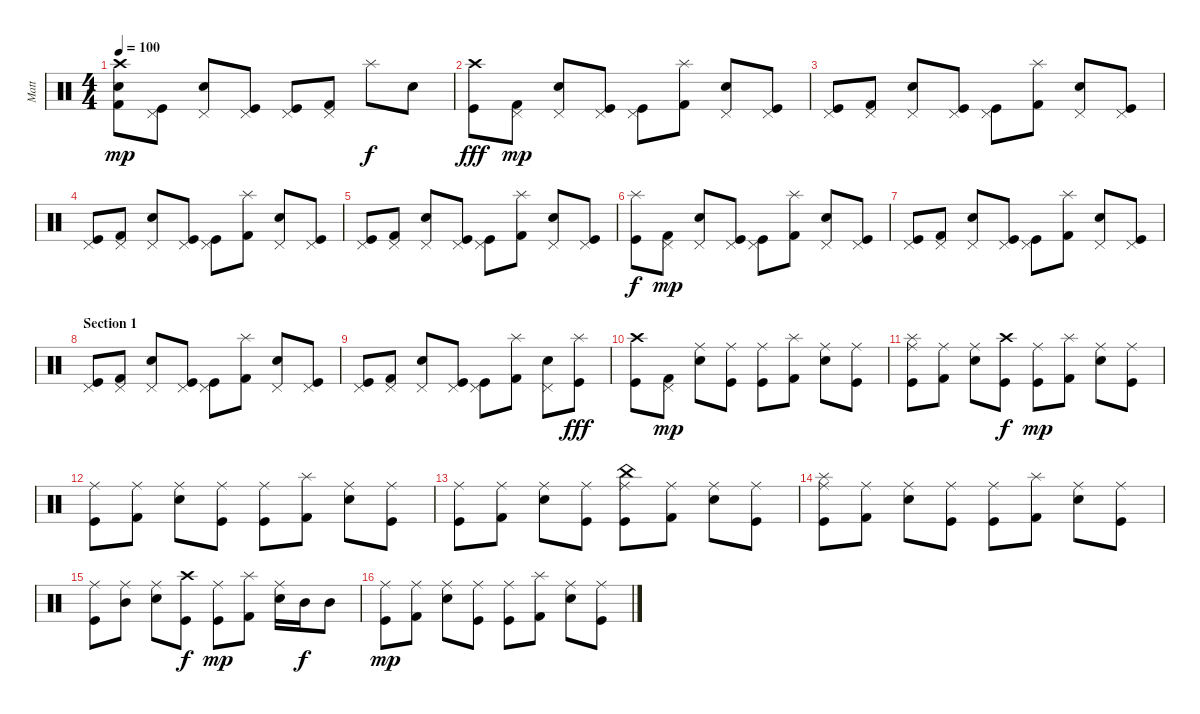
\track ("Matt" "Matt") {instrument percussion}
\staff {score}
\articulation defaults
\ts (4 4)
\tempo 100
\clef neutral
\ks c
("Electric Snare (hit)" "Kick (hit) 2" "Crash high (hit)").8{dy mp} ("Kick (hit)" "Pedal Hi-Hat (hit)").8 ("Electric Snare (hit)" "Pedal Hi-Hat (hit)").8 ("Kick (hit)" "Pedal Hi-Hat (hit)").8 ("Kick (hit)" "Pedal Hi-Hat (hit)").8 ("Kick (hit) 2"{tr (36 16)} "Pedal Hi-Hat (hit)").8 "Splash (hit)".8{dy f} "Electric Snare (hit)"{tr (40 16)}.8 |
("Kick (hit)" "Crash high (hit)").8{dy fff} ("Kick (hit) 2" "Pedal Hi-Hat (hit)").8{dy mp} ("Electric Snare (hit)" "Pedal Hi-Hat (hit)").8 ("Kick (hit)" "Pedal Hi-Hat (hit)").8 ("Kick (hit)" "Pedal Hi-Hat (hit)").8 ("Kick (hit) 2" "Splash (hit)").8 ("Electric Snare (hit)" "Pedal Hi-Hat (hit)").8 ("Kick (hit)" "Pedal Hi-Hat (hit)").8 |
("Kick (hit)" "Pedal Hi-Hat (hit)").8 ("Kick (hit) 2" "Pedal Hi-Hat (hit)").8 ("Electric Snare (hit)" "Pedal Hi-Hat (hit)").8 ("Kick (hit)" "Pedal Hi-Hat (hit)").8 ("Kick (hit)" "Pedal Hi-Hat (hit)").8 ("Kick (hit) 2" "Splash (hit)").8 ("Electric Snare (hit)" "Pedal Hi-Hat (hit)").8 ("Kick (hit)" "Pedal Hi-Hat (hit)").8 |
("Kick (hit)" "Pedal Hi-Hat (hit)").8 ("Kick (hit) 2" "Pedal Hi-Hat (hit)").8 ("Electric Snare (hit)" "Pedal Hi-Hat (hit)").8 ("Kick (hit)" "Pedal Hi-Hat (hit)").8 ("Kick (hit)" "Pedal Hi-Hat (hit)").8 ("Kick (hit) 2" "Splash (hit)").8 ("Electric Snare (hit)" "Pedal Hi-Hat (hit)").8 ("Kick (hit)" "Pedal Hi-Hat (hit)").8 |
("Kick (hit)" "Pedal Hi-Hat (hit)").8 ("Kick (hit) 2" "Pedal Hi-Hat (hit)").8 ("Electric Snare (hit)" "Pedal Hi-Hat (hit)").8 ("Kick (hit)" "Pedal Hi-Hat (hit)").8 ("Kick (hit)" "Pedal Hi-Hat (hit)").8 ("Kick (hit) 2" "Splash (hit)").8 ("Electric Snare (hit)" "Pedal Hi-Hat (hit)").8 ("Kick (hit)" "Pedal Hi-Hat (hit)").8 |
("Kick (hit)" "Splash (hit)").8{dy f} ("Kick (hit) 2" "Pedal Hi-Hat (hit)").8{dy mp} ("Electric Snare (hit)" "Pedal Hi-Hat (hit)").8 ("Kick (hit)" "Pedal Hi-Hat (hit)").8 ("Kick (hit)" "Pedal Hi-Hat (hit)").8 ("Kick (hit) 2" "Splash (hit)").8 ("Electric Snare (hit)" "Pedal Hi-Hat (hit)").8 ("Kick (hit)" "Pedal Hi-Hat (hit)").8 |
("Kick (hit)" "Pedal Hi-Hat (hit)").8 ("Kick (hit) 2" "Pedal Hi-Hat (hit)").8 ("Electric Snare (hit)" "Pedal Hi-Hat (hit)").8 ("Kick (hit)" "Pedal Hi-Hat (hit)").8 ("Kick (hit)" "Pedal Hi-Hat (hit)").8 ("Kick (hit) 2" "Splash (hit)").8 ("Electric Snare (hit)" "Pedal Hi-Hat (hit)").8 ("Kick (hit)" "Pedal Hi-Hat (hit)").8 |
\section ("" "Section 1")
("Kick (hit)" "Pedal Hi-Hat (hit)").8 ("Kick (hit) 2" "Pedal Hi-Hat (hit)").8 ("Electric Snare (hit)" "Pedal Hi-Hat (hit)").8 ("Kick (hit)" "Pedal Hi-Hat (hit)").8 ("Kick (hit)" "Pedal Hi-Hat (hit)").8 ("Kick (hit) 2" "Splash (hit)").8 ("Electric Snare (hit)" "Pedal Hi-Hat (hit)").8 ("Kick (hit)" "Pedal Hi-Hat (hit)").8 |
("Kick (hit)" "Pedal Hi-Hat (hit)").8 ("Kick (hit) 2" "Pedal Hi-Hat (hit)").8 ("Electric Snare (hit)" "Pedal Hi-Hat (hit)").8 ("Kick (hit)" "Pedal Hi-Hat (hit)").8 ("Kick (hit)" "Pedal Hi-Hat (hit)").8 ("Kick (hit) 2" "Splash (hit)").8 ("Electric Snare (hit)" "Pedal Hi-Hat (hit)").8 ("Kick (hit)" "Splash (hit)").8{dy fff} |
("Kick (hit)" "Crash high (hit)").8 ("Kick (hit) 2" "Pedal Hi-Hat (hit)").8{dy mp} ("Electric Snare (hit)" "Ride (middle)").8 ("Kick (hit)" "Ride (middle)").8 ("Kick (hit)" "Ride (middle)").8 ("Kick (hit) 2" "Splash (hit)").8 ("Electric Snare (hit)" "Ride (middle)").8 ("Kick (hit)" "Ride (middle)").8 |
("Kick (hit)" "Splash (hit)" "Ride (middle)").8 ("Kick (hit) 2" "Ride (middle)").8 ("Electric Snare (hit)" "Ride (middle)").8 ("Kick (hit)" "Crash high (hit)").8{dy f} ("Kick (hit)" "Ride (middle)").8{dy mp} ("Kick (hit) 2" "Splash (hit)").8 ("Electric Snare (hit)" "Ride (middle)").8 ("Kick (hit)" "Ride (middle)").8 |
("Kick (hit)" "Ride (middle)").8 ("Kick (hit) 2" "Ride (middle)").8 ("Electric Snare (hit)" "Ride (middle)").8 ("Kick (hit)" "Ride (middle)").8 ("Kick (hit)" "Ride (middle)").8 ("Kick (hit) 2" "Splash (hit)").8 ("Electric Snare (hit)" "Ride (middle)").8 ("Kick (hit)" "Ride (middle)").8 |
("Kick (hit)" "Ride (middle)").8 ("Kick (hit) 2" "Ride (middle)").8 ("Electric Snare (hit)" "Ride (middle)").8 ("Kick (hit)" "Ride (middle)").8 ("Kick (hit)" "China (hit)" "Ride (middle)").8 ("Kick (hit) 2" "Ride (middle)").8 ("Electric Snare (hit)" "Ride (middle)").8 ("Kick (hit)" "Ride (middle)").8 |
("Kick (hit)" "Splash (hit)" "Ride (middle)").8 ("Kick (hit) 2" "Ride (middle)").8 ("Electric Snare (hit)" "Ride (middle)").8 ("Kick (hit)" "Ride (middle)").8 ("Kick (hit)" "Ride (middle)").8 ("Kick (hit) 2" "Splash (hit)").8 ("Electric Snare (hit)" "Ride (middle)").8 ("Kick (hit)" "Ride (middle)").8 |
("Kick (hit)" "Ride (middle)").8 ("Mid Tom (hit)" "Ride (middle)").8 ("Electric Snare (hit)" "Ride (middle)").8 ("Kick (hit)" "Crash high (hit)").8{dy f} ("Kick (hit)" "Ride (middle)").8{dy mp} ("Kick (hit) 2" "Splash (hit)").8 ("Electric Snare (hit)" "Ride (middle)").16 "Mid Tom (hit)".16{dy f} "Mid Tom (hit)".8 |
("Kick (hit)" "Ride (middle)").8{dy mp} ("Kick (hit) 2" "Ride (middle)").8 ("Electric Snare (hit)" "Ride (middle)").8 ("Kick (hit)" "Ride (middle)").8 ("Kick (hit)" "Ride (middle)").8 ("Kick (hit) 2" "Splash (hit)").8 ("Electric Snare (hit)" "Ride (middle)").8 ("Kick (hit)" "Ride (middle)").8
